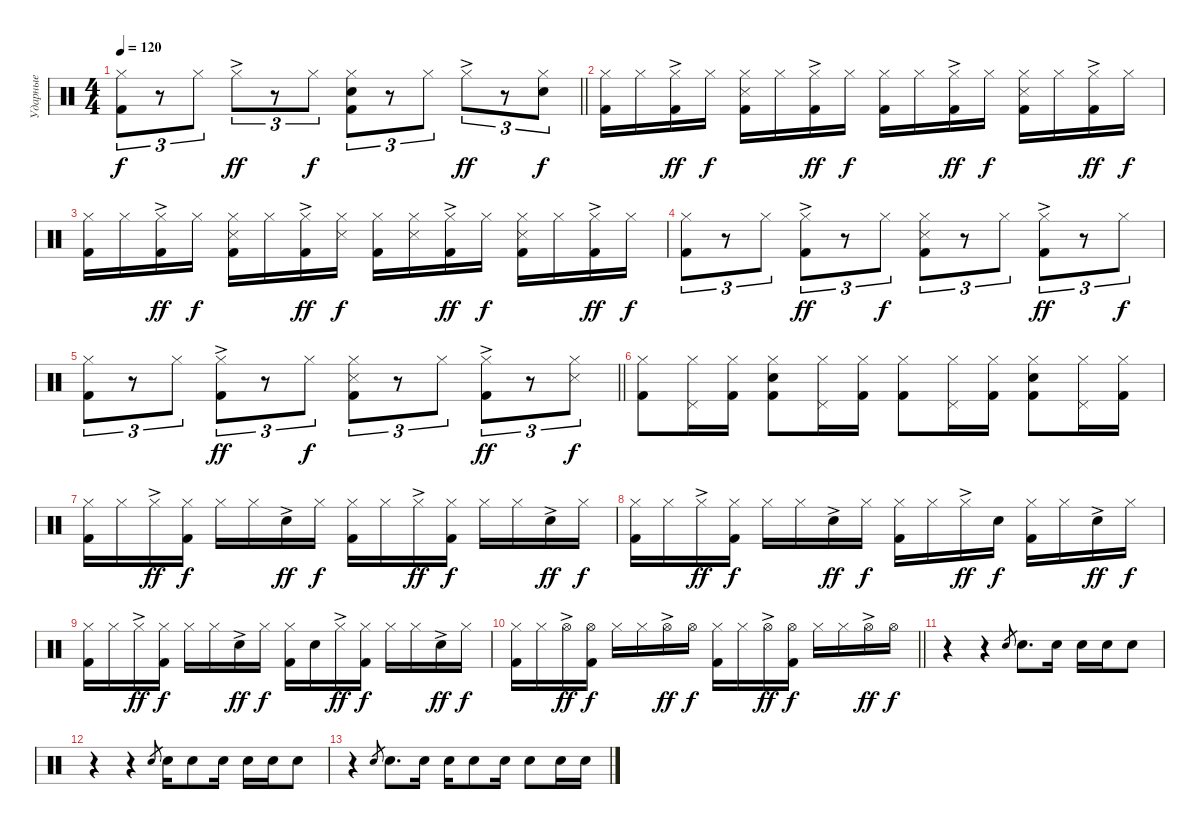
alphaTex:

\track ("Ударные" "Ударные") {instrument percussion}
\staff {score}
\articulation defaults
\ts (4 4)
\tempo 120
\clef neutral
\barLineRight lightlight
\ks c
("Hi-Hat (closed)" "Kick (hit) 2").8{tu (3 2) dy f} r.8{tu (3 2)} "Hi-Hat (closed)".8{tu (3 2)} "Hi-Hat (closed)"{ac}.8{tu (3 2) dy ff} r.8{tu (3 2)} "Hi-Hat (closed)".8{tu (3 2) dy f} ("Hi-Hat (closed)" "Kick (hit) 2" "Electric Snare (hit)").8{tu (3 2)} r.8{tu (3 2)} "Hi-Hat (closed)".8{tu (3 2)} "Hi-Hat (closed)"{ac}.8{tu (3 2) dy ff} r.8{tu (3 2)} ("Hi-Hat (closed)" "Electric Snare (hit)").8{tu (3 2) dy f} |
("Hi-Hat (closed)" "Kick (hit) 2").16 "Hi-Hat (closed)".16 ("Hi-Hat (closed)"{ac} "Kick (hit) 2").16{dy ff} "Hi-Hat (closed)".16{dy f} ("Hi-Hat (closed)" "Kick (hit) 2" "Snare (side stick) 3").16 "Hi-Hat (closed)".16 ("Hi-Hat (closed)"{ac} "Kick (hit) 2").16{dy ff} "Hi-Hat (closed)".16{dy f} ("Hi-Hat (closed)" "Kick (hit) 2").16 "Hi-Hat (closed)".16 ("Hi-Hat (closed)"{ac} "Kick (hit) 2").16{dy ff} "Hi-Hat (closed)".16{dy f} ("Hi-Hat (closed)" "Kick (hit) 2" "Snare (side stick) 3").16 "Hi-Hat (closed)".16 ("Hi-Hat (closed)"{ac} "Kick (hit) 2").16{dy ff} "Hi-Hat (closed)".16{dy f} |
("Hi-Hat (closed)" "Kick (hit) 2").16 "Hi-Hat (closed)".16 ("Hi-Hat (closed)"{ac} "Kick (hit) 2").16{dy ff} "Hi-Hat (closed)".16{dy f} ("Hi-Hat (closed)" "Kick (hit) 2" "Snare (side stick) 3").16 "Hi-Hat (closed)".16 ("Hi-Hat (closed)"{ac} "Kick (hit) 2").16{dy ff} ("Hi-Hat (closed)" "Snare (side stick) 3").16{dy f} ("Hi-Hat (closed)" "Kick (hit) 2").16 ("Hi-Hat (closed)" "Snare (side stick) 3").16 ("Hi-Hat (closed)"{ac} "Kick (hit) 2").16{dy ff} "Hi-Hat (closed)".16{dy f} ("Hi-Hat (closed)" "Kick (hit) 2" "Snare (side stick) 3").16 "Hi-Hat (closed)".16 ("Hi-Hat (closed)"{ac} "Kick (hit) 2").16{dy ff} "Hi-Hat (closed)".16{dy f} |
("Hi-Hat (closed)" "Kick (hit) 2").8{tu (3 2)} r.8{tu (3 2)} "Hi-Hat (closed)".8{tu (3 2)} ("Hi-Hat (closed)"{ac} "Kick (hit) 2").8{tu (3 2) dy ff} r.8{tu (3 2)} "Hi-Hat (closed)".8{tu (3 2) dy f} ("Hi-Hat (closed)" "Kick (hit) 2" "Snare (side stick) 3").8{tu (3 2)} r.8{tu (3 2)} "Hi-Hat (closed)".8{tu (3 2)} ("Hi-Hat (closed)"{ac} "Kick (hit) 2").8{tu (3 2) dy ff} r.8{tu (3 2)} "Hi-Hat (closed)".8{tu (3 2) dy f} |
\barLineRight lightlight
("Hi-Hat (closed)" "Kick (hit) 2").8{tu (3 2)} r.8{tu (3 2)} "Hi-Hat (closed)".8{tu (3 2)} ("Hi-Hat (closed)"{ac} "Kick (hit) 2").8{tu (3 2) dy ff} r.8{tu (3 2)} "Hi-Hat (closed)".8{tu (3 2) dy f} ("Hi-Hat (closed)" "Kick (hit) 2" "Snare (side stick) 3").8{tu (3 2)} r.8{tu (3 2)} "Hi-Hat (closed)".8{tu (3 2)} ("Hi-Hat (closed)"{ac} "Kick (hit) 2").8{tu (3 2) dy ff} r.8{tu (3 2)} ("Hi-Hat (closed)" "Snare (side stick) 3").8{tu (3 2) dy f} |
("Hi-Hat (closed)" "Kick (hit) 2").8 ("Hi-Hat (closed)" "Pedal Hi-Hat (hit)").16 ("Hi-Hat (closed)" "Kick (hit) 2").16 ("Hi-Hat (closed)" "Kick (hit) 2" "Electric Snare (hit)").8 ("Hi-Hat (closed)" "Pedal Hi-Hat (hit)").16 ("Hi-Hat (closed)" "Kick (hit) 2").16 ("Hi-Hat (closed)" "Kick (hit) 2").8 ("Hi-Hat (closed)" "Pedal Hi-Hat (hit)").16 ("Hi-Hat (closed)" "Kick (hit) 2").16 ("Hi-Hat (closed)" "Kick (hit) 2" "Electric Snare (hit)").8 ("Hi-Hat (closed)" "Pedal Hi-Hat (hit)").16 ("Hi-Hat (closed)" "Kick (hit) 2").16 |
("Hi-Hat (closed)" "Kick (hit) 2").16 "Hi-Hat (closed)".16 "Hi-Hat (closed)"{ac}.16{dy ff} ("Hi-Hat (closed)" "Kick (hit) 2").16{dy f} "Hi-Hat (closed)".16 "Hi-Hat (closed)".16 "Electric Snare (hit)"{ac}.16{dy ff} "Hi-Hat (closed)".16{dy f} ("Hi-Hat (closed)" "Kick (hit) 2").16 "Hi-Hat (closed)".16 "Hi-Hat (closed)"{ac}.16{dy ff} ("Hi-Hat (closed)" "Kick (hit) 2").16{dy f} "Hi-Hat (closed)".16 "Hi-Hat (closed)".16 "Electric Snare (hit)"{ac}.16{dy ff} "Hi-Hat (closed)".16{dy f} |
("Hi-Hat (closed)" "Kick (hit) 2").16 "Hi-Hat (closed)".16 "Hi-Hat (closed)"{ac}.16{dy ff} ("Hi-Hat (closed)" "Kick (hit) 2").16{dy f} "Hi-Hat (closed)".16 "Hi-Hat (closed)".16 "Electric Snare (hit)"{ac}.16{dy ff} "Hi-Hat (closed)".16{dy f} ("Hi-Hat (closed)" "Kick (hit) 2").16 "Hi-Hat (closed)".16 "Hi-Hat (closed)"{ac}.16{dy ff} "Electric Snare (hit)".16{dy f} ("Hi-Hat (closed)" "Kick (hit) 2").16 "Hi-Hat (closed)".16 "Electric Snare (hit)"{ac}.16{dy ff} "Hi-Hat (closed)".16{dy f} |
("Hi-Hat (closed)" "Kick (hit) 2").16 "Hi-Hat (closed)".16 "Hi-Hat (closed)"{ac}.16{dy ff} ("Hi-Hat (closed)" "Kick (hit) 2").16{dy f} "Hi-Hat (closed)".16 "Hi-Hat (closed)".16 "Electric Snare (hit)"{ac}.16{dy ff} "Hi-Hat (closed)".16{dy f} ("Hi-Hat (closed)" "Kick (hit) 2").16 "Electric Snare (hit)".16 "Hi-Hat (closed)"{ac}.16{dy ff} ("Hi-Hat (closed)" "Kick (hit) 2").16{dy f} "Hi-Hat (closed)".16 "Hi-Hat (closed)".16 "Electric Snare (hit)"{ac}.16{dy ff} "Hi-Hat (closed)".16{dy f} |
\barLineRight lightlight
("Hi-Hat (closed)" "Kick (hit) 2").16 "Hi-Hat (closed)".16 "Hi-Hat (open)"{ac}.16{dy ff} ("Kick (hit) 2" "Hi-Hat (open)").16{dy f} "Hi-Hat (closed)".16 "Hi-Hat (closed)".16 "Hi-Hat (open)"{ac}.16{dy ff} "Hi-Hat (open)".16{dy f} ("Hi-Hat (closed)" "Kick (hit) 2").16 "Hi-Hat (closed)".16 "Hi-Hat (open)"{ac}.16{dy ff} ("Kick (hit) 2" "Hi-Hat (open)").16{dy f} "Hi-Hat (closed)".16 "Hi-Hat (closed)".16 "Hi-Hat (open)"{ac}.16{dy ff} "Hi-Hat (open)".16{dy f} |
r.4 r.4 "Electric Snare (hit)".8{gr} "Electric Snare (hit)".8{d} "Electric Snare (hit)".16 "Electric Snare (hit)".16 "Electric Snare (hit)".16 "Electric Snare (hit)".8 |
r.4 r.4 "Electric Snare (hit)".8{gr} "Electric Snare (hit)".16 "Electric Snare (hit)".8 "Electric Snare (hit)".16 "Electric Snare (hit)".16 "Electric Snare (hit)".16 "Electric Snare (hit)".8 |
r.4 "Electric Snare (hit)".8{gr} "Electric Snare (hit)".8{d} "Electric Snare (hit)".16 "Electric Snare (hit)".16 "Electric Snare (hit)".8 "Electric Snare (hit)".16 "Electric Snare (hit)".8 "Electric Snare (hit)".16 "Electric Snare (hit)".16
